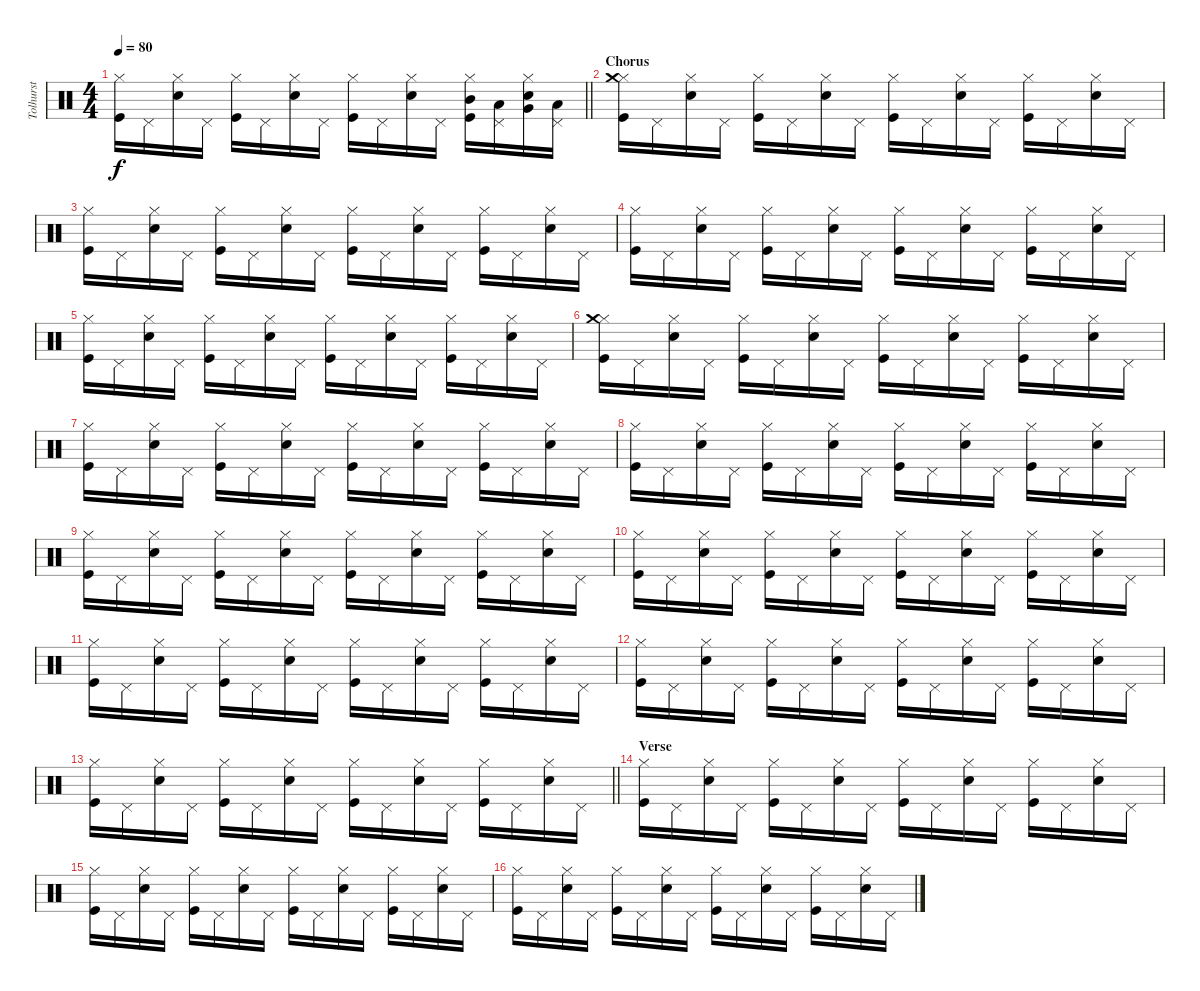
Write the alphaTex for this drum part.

\track ("Tolhurst" "Tolhurst") {instrument percussion}
\staff {score}
\articulation defaults
\ts (4 4)
\tempo 80
\clef neutral
\barLineRight lightlight
\ks c
("Kick (hit)" "Hi-Hat (closed)").16{dy f} "Pedal Hi-Hat (hit)".16 ("Snare (hit) 2" "Hi-Hat (closed)").16 "Pedal Hi-Hat (hit)".16 ("Kick (hit)" "Hi-Hat (closed)").16 "Pedal Hi-Hat (hit)".16 ("Snare (hit) 2" "Hi-Hat (closed)").16 "Pedal Hi-Hat (hit)".16 ("Kick (hit)" "Hi-Hat (closed)").16 "Pedal Hi-Hat (hit)".16 ("Snare (hit) 2" "Hi-Hat (closed)").16 "Pedal Hi-Hat (hit)".16 ("Kick (hit)" "Hi-Hat (closed)" "Mid Tom (hit)").16 ("Pedal Hi-Hat (hit)" "Low Tom (hit)").16 ("Snare (hit) 2" "Hi-Hat (closed)" "Very Low Tom (hit)").16 ("Pedal Hi-Hat (hit)" "Low Floor Tom (hit)").16 |
\section ("" "Chorus")
("Kick (hit)" "Hi-Hat (closed)" "Crash medium (hit)").16 "Pedal Hi-Hat (hit)".16 ("Snare (hit) 2" "Hi-Hat (closed)").16 "Pedal Hi-Hat (hit)".16 ("Kick (hit)" "Hi-Hat (closed)").16 "Pedal Hi-Hat (hit)".16 ("Snare (hit) 2" "Hi-Hat (closed)").16 "Pedal Hi-Hat (hit)".16 ("Kick (hit)" "Hi-Hat (closed)").16 "Pedal Hi-Hat (hit)".16 ("Snare (hit) 2" "Hi-Hat (closed)").16 "Pedal Hi-Hat (hit)".16 ("Kick (hit)" "Hi-Hat (closed)").16 "Pedal Hi-Hat (hit)".16 ("Snare (hit) 2" "Hi-Hat (closed)").16 "Pedal Hi-Hat (hit)".16 |
("Kick (hit)" "Hi-Hat (closed)").16 "Pedal Hi-Hat (hit)".16 ("Snare (hit) 2" "Hi-Hat (closed)").16 "Pedal Hi-Hat (hit)".16 ("Kick (hit)" "Hi-Hat (closed)").16 "Pedal Hi-Hat (hit)".16 ("Snare (hit) 2" "Hi-Hat (closed)").16 "Pedal Hi-Hat (hit)".16 ("Kick (hit)" "Hi-Hat (closed)").16 "Pedal Hi-Hat (hit)".16 ("Snare (hit) 2" "Hi-Hat (closed)").16 "Pedal Hi-Hat (hit)".16 ("Kick (hit)" "Hi-Hat (closed)").16 "Pedal Hi-Hat (hit)".16 ("Snare (hit) 2" "Hi-Hat (closed)").16 "Pedal Hi-Hat (hit)".16 |
("Kick (hit)" "Hi-Hat (closed)").16 "Pedal Hi-Hat (hit)".16 ("Snare (hit) 2" "Hi-Hat (closed)").16 "Pedal Hi-Hat (hit)".16 ("Kick (hit)" "Hi-Hat (closed)").16 "Pedal Hi-Hat (hit)".16 ("Snare (hit) 2" "Hi-Hat (closed)").16 "Pedal Hi-Hat (hit)".16 ("Kick (hit)" "Hi-Hat (closed)").16 "Pedal Hi-Hat (hit)".16 ("Snare (hit) 2" "Hi-Hat (closed)").16 "Pedal Hi-Hat (hit)".16 ("Kick (hit)" "Hi-Hat (closed)").16 "Pedal Hi-Hat (hit)".16 ("Snare (hit) 2" "Hi-Hat (closed)").16 "Pedal Hi-Hat (hit)".16 |
("Kick (hit)" "Hi-Hat (closed)").16 "Pedal Hi-Hat (hit)".16 ("Snare (hit) 2" "Hi-Hat (closed)").16 "Pedal Hi-Hat (hit)".16 ("Kick (hit)" "Hi-Hat (closed)").16 "Pedal Hi-Hat (hit)".16 ("Snare (hit) 2" "Hi-Hat (closed)").16 "Pedal Hi-Hat (hit)".16 ("Kick (hit)" "Hi-Hat (closed)").16 "Pedal Hi-Hat (hit)".16 ("Snare (hit) 2" "Hi-Hat (closed)").16 "Pedal Hi-Hat (hit)".16 ("Kick (hit)" "Hi-Hat (closed)").16 "Pedal Hi-Hat (hit)".16 ("Snare (hit) 2" "Hi-Hat (closed)").16 "Pedal Hi-Hat (hit)".16 |
("Kick (hit)" "Hi-Hat (closed)" "Crash medium (hit)").16 "Pedal Hi-Hat (hit)".16 ("Snare (hit) 2" "Hi-Hat (closed)").16 "Pedal Hi-Hat (hit)".16 ("Kick (hit)" "Hi-Hat (closed)").16 "Pedal Hi-Hat (hit)".16 ("Snare (hit) 2" "Hi-Hat (closed)").16 "Pedal Hi-Hat (hit)".16 ("Kick (hit)" "Hi-Hat (closed)").16 "Pedal Hi-Hat (hit)".16 ("Snare (hit) 2" "Hi-Hat (closed)").16 "Pedal Hi-Hat (hit)".16 ("Kick (hit)" "Hi-Hat (closed)").16 "Pedal Hi-Hat (hit)".16 ("Snare (hit) 2" "Hi-Hat (closed)").16 "Pedal Hi-Hat (hit)".16 |
("Kick (hit)" "Hi-Hat (closed)").16 "Pedal Hi-Hat (hit)".16 ("Snare (hit) 2" "Hi-Hat (closed)").16 "Pedal Hi-Hat (hit)".16 ("Kick (hit)" "Hi-Hat (closed)").16 "Pedal Hi-Hat (hit)".16 ("Snare (hit) 2" "Hi-Hat (closed)").16 "Pedal Hi-Hat (hit)".16 ("Kick (hit)" "Hi-Hat (closed)").16 "Pedal Hi-Hat (hit)".16 ("Snare (hit) 2" "Hi-Hat (closed)").16 "Pedal Hi-Hat (hit)".16 ("Kick (hit)" "Hi-Hat (closed)").16 "Pedal Hi-Hat (hit)".16 ("Snare (hit) 2" "Hi-Hat (closed)").16 "Pedal Hi-Hat (hit)".16 |
("Kick (hit)" "Hi-Hat (closed)").16 "Pedal Hi-Hat (hit)".16 ("Snare (hit) 2" "Hi-Hat (closed)").16 "Pedal Hi-Hat (hit)".16 ("Kick (hit)" "Hi-Hat (closed)").16 "Pedal Hi-Hat (hit)".16 ("Snare (hit) 2" "Hi-Hat (closed)").16 "Pedal Hi-Hat (hit)".16 ("Kick (hit)" "Hi-Hat (closed)").16 "Pedal Hi-Hat (hit)".16 ("Snare (hit) 2" "Hi-Hat (closed)").16 "Pedal Hi-Hat (hit)".16 ("Kick (hit)" "Hi-Hat (closed)").16 "Pedal Hi-Hat (hit)".16 ("Snare (hit) 2" "Hi-Hat (closed)").16 "Pedal Hi-Hat (hit)".16 |
("Kick (hit)" "Hi-Hat (closed)").16 "Pedal Hi-Hat (hit)".16 ("Snare (hit) 2" "Hi-Hat (closed)").16 "Pedal Hi-Hat (hit)".16 ("Kick (hit)" "Hi-Hat (closed)").16 "Pedal Hi-Hat (hit)".16 ("Snare (hit) 2" "Hi-Hat (closed)").16 "Pedal Hi-Hat (hit)".16 ("Kick (hit)" "Hi-Hat (closed)").16 "Pedal Hi-Hat (hit)".16 ("Snare (hit) 2" "Hi-Hat (closed)").16 "Pedal Hi-Hat (hit)".16 ("Kick (hit)" "Hi-Hat (closed)").16 "Pedal Hi-Hat (hit)".16 ("Snare (hit) 2" "Hi-Hat (closed)").16 "Pedal Hi-Hat (hit)".16 |
("Kick (hit)" "Hi-Hat (closed)").16 "Pedal Hi-Hat (hit)".16 ("Snare (hit) 2" "Hi-Hat (closed)").16 "Pedal Hi-Hat (hit)".16 ("Kick (hit)" "Hi-Hat (closed)").16 "Pedal Hi-Hat (hit)".16 ("Snare (hit) 2" "Hi-Hat (closed)").16 "Pedal Hi-Hat (hit)".16 ("Kick (hit)" "Hi-Hat (closed)").16 "Pedal Hi-Hat (hit)".16 ("Snare (hit) 2" "Hi-Hat (closed)").16 "Pedal Hi-Hat (hit)".16 ("Kick (hit)" "Hi-Hat (closed)").16 "Pedal Hi-Hat (hit)".16 ("Snare (hit) 2" "Hi-Hat (closed)").16 "Pedal Hi-Hat (hit)".16 |
("Kick (hit)" "Hi-Hat (closed)").16 "Pedal Hi-Hat (hit)".16 ("Snare (hit) 2" "Hi-Hat (closed)").16 "Pedal Hi-Hat (hit)".16 ("Kick (hit)" "Hi-Hat (closed)").16 "Pedal Hi-Hat (hit)".16 ("Snare (hit) 2" "Hi-Hat (closed)").16 "Pedal Hi-Hat (hit)".16 ("Kick (hit)" "Hi-Hat (closed)").16 "Pedal Hi-Hat (hit)".16 ("Snare (hit) 2" "Hi-Hat (closed)").16 "Pedal Hi-Hat (hit)".16 ("Kick (hit)" "Hi-Hat (closed)").16 "Pedal Hi-Hat (hit)".16 ("Snare (hit) 2" "Hi-Hat (closed)").16 "Pedal Hi-Hat (hit)".16 |
("Kick (hit)" "Hi-Hat (closed)").16 "Pedal Hi-Hat (hit)".16 ("Snare (hit) 2" "Hi-Hat (closed)").16 "Pedal Hi-Hat (hit)".16 ("Kick (hit)" "Hi-Hat (closed)").16 "Pedal Hi-Hat (hit)".16 ("Snare (hit) 2" "Hi-Hat (closed)").16 "Pedal Hi-Hat (hit)".16 ("Kick (hit)" "Hi-Hat (closed)").16 "Pedal Hi-Hat (hit)".16 ("Snare (hit) 2" "Hi-Hat (closed)").16 "Pedal Hi-Hat (hit)".16 ("Kick (hit)" "Hi-Hat (closed)").16 "Pedal Hi-Hat (hit)".16 ("Snare (hit) 2" "Hi-Hat (closed)").16 "Pedal Hi-Hat (hit)".16 |
\barLineRight lightlight
("Kick (hit)" "Hi-Hat (closed)").16 "Pedal Hi-Hat (hit)".16 ("Snare (hit) 2" "Hi-Hat (closed)").16 "Pedal Hi-Hat (hit)".16 ("Kick (hit)" "Hi-Hat (closed)").16 "Pedal Hi-Hat (hit)".16 ("Snare (hit) 2" "Hi-Hat (closed)").16 "Pedal Hi-Hat (hit)".16 ("Kick (hit)" "Hi-Hat (closed)").16 "Pedal Hi-Hat (hit)".16 ("Snare (hit) 2" "Hi-Hat (closed)").16 "Pedal Hi-Hat (hit)".16 ("Kick (hit)" "Hi-Hat (closed)").16 "Pedal Hi-Hat (hit)".16 ("Snare (hit) 2" "Hi-Hat (closed)").16 "Pedal Hi-Hat (hit)".16 |
\section ("" "Verse")
("Kick (hit)" "Hi-Hat (closed)").16 "Pedal Hi-Hat (hit)".16 ("Snare (hit) 2" "Hi-Hat (closed)").16 "Pedal Hi-Hat (hit)".16 ("Kick (hit)" "Hi-Hat (closed)").16 "Pedal Hi-Hat (hit)".16 ("Snare (hit) 2" "Hi-Hat (closed)").16 "Pedal Hi-Hat (hit)".16 ("Kick (hit)" "Hi-Hat (closed)").16 "Pedal Hi-Hat (hit)".16 ("Snare (hit) 2" "Hi-Hat (closed)").16 "Pedal Hi-Hat (hit)".16 ("Kick (hit)" "Hi-Hat (closed)").16 "Pedal Hi-Hat (hit)".16 ("Snare (hit) 2" "Hi-Hat (closed)").16 "Pedal Hi-Hat (hit)".16 |
("Kick (hit)" "Hi-Hat (closed)").16 "Pedal Hi-Hat (hit)".16 ("Snare (hit) 2" "Hi-Hat (closed)").16 "Pedal Hi-Hat (hit)".16 ("Kick (hit)" "Hi-Hat (closed)").16 "Pedal Hi-Hat (hit)".16 ("Snare (hit) 2" "Hi-Hat (closed)").16 "Pedal Hi-Hat (hit)".16 ("Kick (hit)" "Hi-Hat (closed)").16 "Pedal Hi-Hat (hit)".16 ("Snare (hit) 2" "Hi-Hat (closed)").16 "Pedal Hi-Hat (hit)".16 ("Kick (hit)" "Hi-Hat (closed)").16 "Pedal Hi-Hat (hit)".16 ("Snare (hit) 2" "Hi-Hat (closed)").16 "Pedal Hi-Hat (hit)".16 |
("Kick (hit)" "Hi-Hat (closed)").16 "Pedal Hi-Hat (hit)".16 ("Snare (hit) 2" "Hi-Hat (closed)").16 "Pedal Hi-Hat (hit)".16 ("Kick (hit)" "Hi-Hat (closed)").16 "Pedal Hi-Hat (hit)".16 ("Snare (hit) 2" "Hi-Hat (closed)").16 "Pedal Hi-Hat (hit)".16 ("Kick (hit)" "Hi-Hat (closed)").16 "Pedal Hi-Hat (hit)".16 ("Snare (hit) 2" "Hi-Hat (closed)").16 "Pedal Hi-Hat (hit)".16 ("Kick (hit)" "Hi-Hat (closed)").16 "Pedal Hi-Hat (hit)".16 ("Snare (hit) 2" "Hi-Hat (closed)").16 "Pedal Hi-Hat (hit)".16
